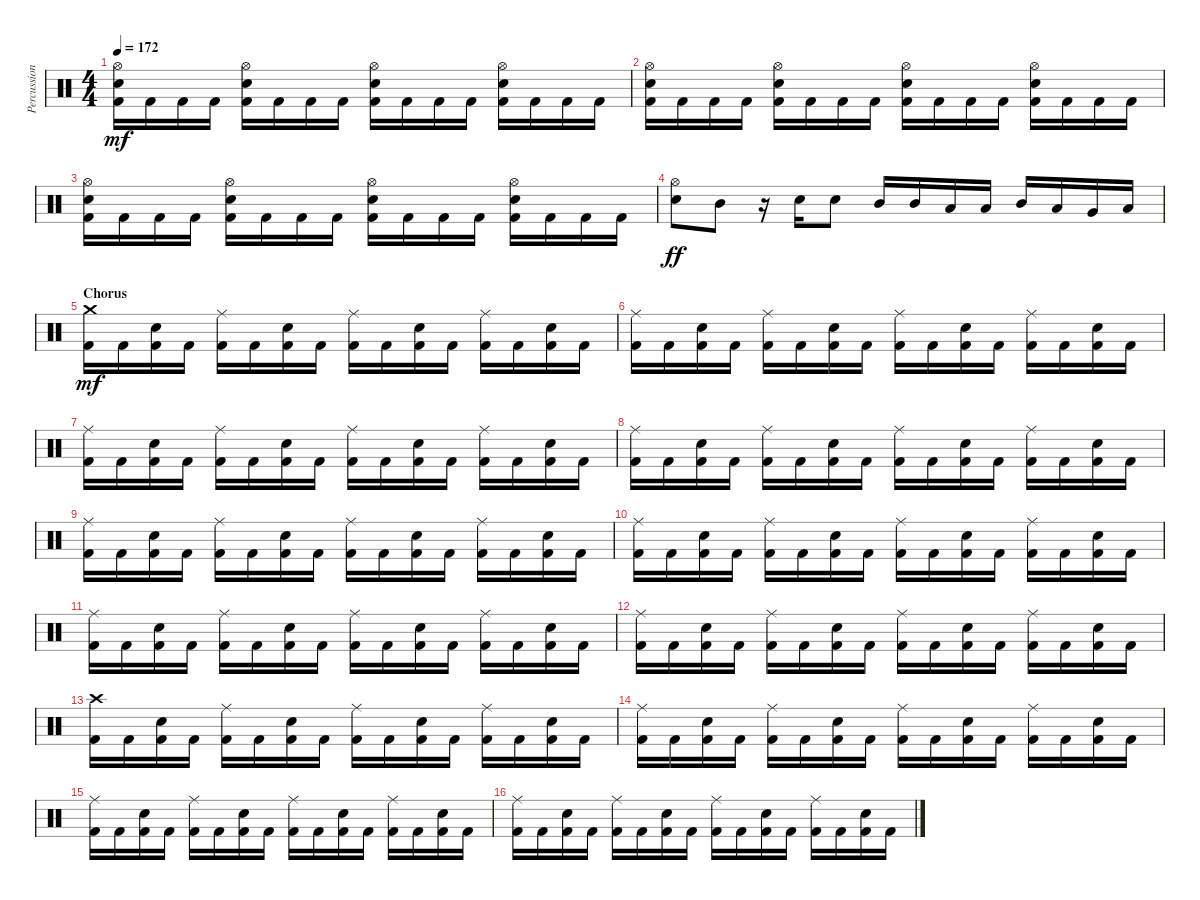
\track ("Percussion" "Percussion") {instrument percussion}
\staff {score}
\articulation defaults
\ts (4 4)
\tempo 172
\clef neutral
\ks c
("Hi-Hat (open)" "Electric Snare (hit)" "Kick (hit) 2").16{dy mf} "Kick (hit) 2".16 "Kick (hit) 2".16 "Kick (hit) 2".16 ("Hi-Hat (open)" "Electric Snare (hit)" "Kick (hit) 2").16 "Kick (hit) 2".16 "Kick (hit) 2".16 "Kick (hit) 2".16 ("Hi-Hat (open)" "Electric Snare (hit)" "Kick (hit) 2").16 "Kick (hit) 2".16 "Kick (hit) 2".16 "Kick (hit) 2".16 ("Hi-Hat (open)" "Electric Snare (hit)" "Kick (hit) 2").16 "Kick (hit) 2".16 "Kick (hit) 2".16 "Kick (hit) 2".16 |
("Hi-Hat (open)" "Electric Snare (hit)" "Kick (hit) 2").16 "Kick (hit) 2".16 "Kick (hit) 2".16 "Kick (hit) 2".16 ("Hi-Hat (open)" "Electric Snare (hit)" "Kick (hit) 2").16 "Kick (hit) 2".16 "Kick (hit) 2".16 "Kick (hit) 2".16 ("Hi-Hat (open)" "Electric Snare (hit)" "Kick (hit) 2").16 "Kick (hit) 2".16 "Kick (hit) 2".16 "Kick (hit) 2".16 ("Hi-Hat (open)" "Electric Snare (hit)" "Kick (hit) 2").16 "Kick (hit) 2".16 "Kick (hit) 2".16 "Kick (hit) 2".16 |
("Hi-Hat (open)" "Electric Snare (hit)" "Kick (hit) 2").16 "Kick (hit) 2".16 "Kick (hit) 2".16 "Kick (hit) 2".16 ("Hi-Hat (open)" "Electric Snare (hit)" "Kick (hit) 2").16 "Kick (hit) 2".16 "Kick (hit) 2".16 "Kick (hit) 2".16 ("Hi-Hat (open)" "Electric Snare (hit)" "Kick (hit) 2").16 "Kick (hit) 2".16 "Kick (hit) 2".16 "Kick (hit) 2".16 ("Hi-Hat (open)" "Electric Snare (hit)" "Kick (hit) 2").16 "Kick (hit) 2".16 "Kick (hit) 2".16 "Kick (hit) 2".16 |
("Hi-Hat (open)" "Electric Snare (hit)").8{dy ff} "Mid Tom (hit)".8 r.16 "Electric Snare (hit)".16 "Electric Snare (hit)".8 "Mid Tom (hit)".16 "Mid Tom (hit)".16 "Low Tom (hit)".16 "Low Tom (hit)".16 "Mid Tom (hit)".16 "Low Tom (hit)".16 "Very Low Tom (hit)".16 "Low Floor Tom (hit)".16 |
\section ("" "Chorus")
("Crash medium (hit)" "Kick (hit) 2").16{dy mf} "Kick (hit) 2".16 ("Electric Snare (hit)" "Kick (hit) 2").16 "Kick (hit) 2".16 ("Ride (middle)" "Kick (hit) 2").16 "Kick (hit) 2".16 ("Electric Snare (hit)" "Kick (hit) 2").16 "Kick (hit) 2".16 ("Ride (middle)" "Kick (hit) 2").16 "Kick (hit) 2".16 ("Electric Snare (hit)" "Kick (hit) 2").16 "Kick (hit) 2".16 ("Ride (middle)" "Kick (hit) 2").16 "Kick (hit) 2".16 ("Electric Snare (hit)" "Kick (hit) 2").16 "Kick (hit) 2".16 |
("Ride (middle)" "Kick (hit) 2").16 "Kick (hit) 2".16 ("Electric Snare (hit)" "Kick (hit) 2").16 "Kick (hit) 2".16 ("Ride (middle)" "Kick (hit) 2").16 "Kick (hit) 2".16 ("Electric Snare (hit)" "Kick (hit) 2").16 "Kick (hit) 2".16 ("Ride (middle)" "Kick (hit) 2").16 "Kick (hit) 2".16 ("Electric Snare (hit)" "Kick (hit) 2").16 "Kick (hit) 2".16 ("Ride (middle)" "Kick (hit) 2").16 "Kick (hit) 2".16 ("Electric Snare (hit)" "Kick (hit) 2").16 "Kick (hit) 2".16 |
("Ride (middle)" "Kick (hit) 2").16 "Kick (hit) 2".16 ("Electric Snare (hit)" "Kick (hit) 2").16 "Kick (hit) 2".16 ("Ride (middle)" "Kick (hit) 2").16 "Kick (hit) 2".16 ("Electric Snare (hit)" "Kick (hit) 2").16 "Kick (hit) 2".16 ("Ride (middle)" "Kick (hit) 2").16 "Kick (hit) 2".16 ("Electric Snare (hit)" "Kick (hit) 2").16 "Kick (hit) 2".16 ("Ride (middle)" "Kick (hit) 2").16 "Kick (hit) 2".16 ("Electric Snare (hit)" "Kick (hit) 2").16 "Kick (hit) 2".16 |
("Ride (middle)" "Kick (hit) 2").16 "Kick (hit) 2".16 ("Electric Snare (hit)" "Kick (hit) 2").16 "Kick (hit) 2".16 ("Ride (middle)" "Kick (hit) 2").16 "Kick (hit) 2".16 ("Electric Snare (hit)" "Kick (hit) 2").16 "Kick (hit) 2".16 ("Ride (middle)" "Kick (hit) 2").16 "Kick (hit) 2".16 ("Electric Snare (hit)" "Kick (hit) 2").16 "Kick (hit) 2".16 ("Ride (middle)" "Kick (hit) 2").16 "Kick (hit) 2".16 ("Electric Snare (hit)" "Kick (hit) 2").16 "Kick (hit) 2".16 |
("Ride (middle)" "Kick (hit) 2").16 "Kick (hit) 2".16 ("Electric Snare (hit)" "Kick (hit) 2").16 "Kick (hit) 2".16 ("Ride (middle)" "Kick (hit) 2").16 "Kick (hit) 2".16 ("Electric Snare (hit)" "Kick (hit) 2").16 "Kick (hit) 2".16 ("Ride (middle)" "Kick (hit) 2").16 "Kick (hit) 2".16 ("Electric Snare (hit)" "Kick (hit) 2").16 "Kick (hit) 2".16 ("Ride (middle)" "Kick (hit) 2").16 "Kick (hit) 2".16 ("Electric Snare (hit)" "Kick (hit) 2").16 "Kick (hit) 2".16 |
("Ride (middle)" "Kick (hit) 2").16 "Kick (hit) 2".16 ("Electric Snare (hit)" "Kick (hit) 2").16 "Kick (hit) 2".16 ("Ride (middle)" "Kick (hit) 2").16 "Kick (hit) 2".16 ("Electric Snare (hit)" "Kick (hit) 2").16 "Kick (hit) 2".16 ("Ride (middle)" "Kick (hit) 2").16 "Kick (hit) 2".16 ("Electric Snare (hit)" "Kick (hit) 2").16 "Kick (hit) 2".16 ("Ride (middle)" "Kick (hit) 2").16 "Kick (hit) 2".16 ("Electric Snare (hit)" "Kick (hit) 2").16 "Kick (hit) 2".16 |
("Ride (middle)" "Kick (hit) 2").16 "Kick (hit) 2".16 ("Electric Snare (hit)" "Kick (hit) 2").16 "Kick (hit) 2".16 ("Ride (middle)" "Kick (hit) 2").16 "Kick (hit) 2".16 ("Electric Snare (hit)" "Kick (hit) 2").16 "Kick (hit) 2".16 ("Ride (middle)" "Kick (hit) 2").16 "Kick (hit) 2".16 ("Electric Snare (hit)" "Kick (hit) 2").16 "Kick (hit) 2".16 ("Ride (middle)" "Kick (hit) 2").16 "Kick (hit) 2".16 ("Electric Snare (hit)" "Kick (hit) 2").16 "Kick (hit) 2".16 |
("Ride (middle)" "Kick (hit) 2").16 "Kick (hit) 2".16 ("Electric Snare (hit)" "Kick (hit) 2").16 "Kick (hit) 2".16 ("Ride (middle)" "Kick (hit) 2").16 "Kick (hit) 2".16 ("Electric Snare (hit)" "Kick (hit) 2").16 "Kick (hit) 2".16 ("Ride (middle)" "Kick (hit) 2").16 "Kick (hit) 2".16 ("Electric Snare (hit)" "Kick (hit) 2").16 "Kick (hit) 2".16 ("Ride (middle)" "Kick (hit) 2").16 "Kick (hit) 2".16 ("Electric Snare (hit)" "Kick (hit) 2").16 "Kick (hit) 2".16 |
("Crash high (hit)" "Kick (hit) 2").16 "Kick (hit) 2".16 ("Electric Snare (hit)" "Kick (hit) 2").16 "Kick (hit) 2".16 ("Ride (middle)" "Kick (hit) 2").16 "Kick (hit) 2".16 ("Electric Snare (hit)" "Kick (hit) 2").16 "Kick (hit) 2".16 ("Ride (middle)" "Kick (hit) 2").16 "Kick (hit) 2".16 ("Electric Snare (hit)" "Kick (hit) 2").16 "Kick (hit) 2".16 ("Ride (middle)" "Kick (hit) 2").16 "Kick (hit) 2".16 ("Electric Snare (hit)" "Kick (hit) 2").16 "Kick (hit) 2".16 |
("Ride (middle)" "Kick (hit) 2").16 "Kick (hit) 2".16 ("Electric Snare (hit)" "Kick (hit) 2").16 "Kick (hit) 2".16 ("Ride (middle)" "Kick (hit) 2").16 "Kick (hit) 2".16 ("Electric Snare (hit)" "Kick (hit) 2").16 "Kick (hit) 2".16 ("Ride (middle)" "Kick (hit) 2").16 "Kick (hit) 2".16 ("Electric Snare (hit)" "Kick (hit) 2").16 "Kick (hit) 2".16 ("Ride (middle)" "Kick (hit) 2").16 "Kick (hit) 2".16 ("Electric Snare (hit)" "Kick (hit) 2").16 "Kick (hit) 2".16 |
("Ride (middle)" "Kick (hit) 2").16 "Kick (hit) 2".16 ("Electric Snare (hit)" "Kick (hit) 2").16 "Kick (hit) 2".16 ("Ride (middle)" "Kick (hit) 2").16 "Kick (hit) 2".16 ("Electric Snare (hit)" "Kick (hit) 2").16 "Kick (hit) 2".16 ("Ride (middle)" "Kick (hit) 2").16 "Kick (hit) 2".16 ("Electric Snare (hit)" "Kick (hit) 2").16 "Kick (hit) 2".16 ("Ride (middle)" "Kick (hit) 2").16 "Kick (hit) 2".16 ("Electric Snare (hit)" "Kick (hit) 2").16 "Kick (hit) 2".16 |
("Ride (middle)" "Kick (hit) 2").16 "Kick (hit) 2".16 ("Electric Snare (hit)" "Kick (hit) 2").16 "Kick (hit) 2".16 ("Ride (middle)" "Kick (hit) 2").16 "Kick (hit) 2".16 ("Electric Snare (hit)" "Kick (hit) 2").16 "Kick (hit) 2".16 ("Ride (middle)" "Kick (hit) 2").16 "Kick (hit) 2".16 ("Electric Snare (hit)" "Kick (hit) 2").16 "Kick (hit) 2".16 ("Ride (middle)" "Kick (hit) 2").16 "Kick (hit) 2".16 ("Electric Snare (hit)" "Kick (hit) 2").16 "Kick (hit) 2".16
